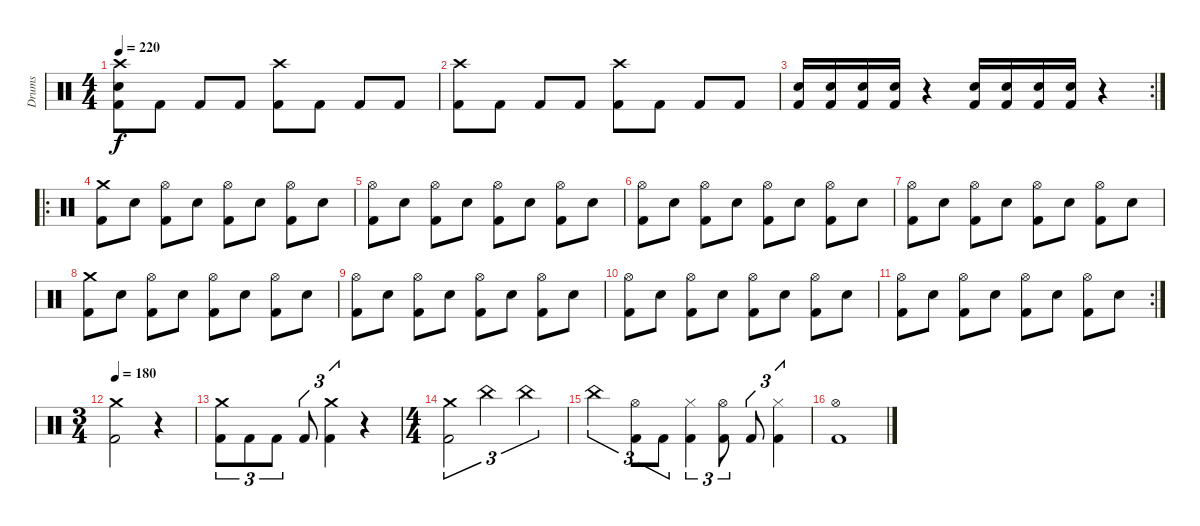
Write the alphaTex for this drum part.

\track ("Drums" "Drums") {instrument percussion}
\staff {score}
\articulation defaults
\ts (4 4)
\tempo 220
\clef neutral
\ks c
("Crash high (hit)" "Electric Snare (hit)" "Kick (hit) 2").8{dy f} "Kick (hit) 2".8 "Kick (hit) 2".8 "Kick (hit) 2".8 ("Crash high (hit)" "Kick (hit) 2").8 "Kick (hit) 2".8 "Kick (hit) 2".8 "Kick (hit) 2".8 |
("Crash high (hit)" "Kick (hit) 2").8 "Kick (hit) 2".8 "Kick (hit) 2".8 "Kick (hit) 2".8 ("Crash high (hit)" "Kick (hit) 2").8 "Kick (hit) 2".8 "Kick (hit) 2".8 "Kick (hit) 2".8 |
\rc 2
("Electric Snare (hit)" "Kick (hit) 2").16 ("Electric Snare (hit)" "Kick (hit) 2").16 ("Electric Snare (hit)" "Kick (hit) 2").16 ("Electric Snare (hit)" "Kick (hit) 2").16 r.4 ("Electric Snare (hit)" "Kick (hit) 2").16 ("Electric Snare (hit)" "Kick (hit) 2").16 ("Electric Snare (hit)" "Kick (hit) 2").16 ("Electric Snare (hit)" "Kick (hit) 2").16 r.4 |
\ro
("Crash medium (hit)" "Kick (hit) 2").8 "Electric Snare (hit)".8 ("Hi-Hat (open)" "Kick (hit) 2").8 "Electric Snare (hit)".8 ("Hi-Hat (open)" "Kick (hit) 2").8 "Electric Snare (hit)".8 ("Hi-Hat (open)" "Kick (hit) 2").8 "Electric Snare (hit)".8 |
("Hi-Hat (open)" "Kick (hit) 2").8 "Electric Snare (hit)".8 ("Hi-Hat (open)" "Kick (hit) 2").8 "Electric Snare (hit)".8 ("Hi-Hat (open)" "Kick (hit) 2").8 "Electric Snare (hit)".8 ("Hi-Hat (open)" "Kick (hit) 2").8 "Electric Snare (hit)".8 |
("Hi-Hat (open)" "Kick (hit) 2").8 "Electric Snare (hit)".8 ("Hi-Hat (open)" "Kick (hit) 2").8 "Electric Snare (hit)".8 ("Hi-Hat (open)" "Kick (hit) 2").8 "Electric Snare (hit)".8 ("Hi-Hat (open)" "Kick (hit) 2").8 "Electric Snare (hit)".8 |
("Hi-Hat (open)" "Kick (hit) 2").8 "Electric Snare (hit)".8 ("Hi-Hat (open)" "Kick (hit) 2").8 "Electric Snare (hit)".8 ("Hi-Hat (open)" "Kick (hit) 2").8 "Electric Snare (hit)".8 ("Hi-Hat (open)" "Kick (hit) 2").8 "Electric Snare (hit)".8 |
("Crash medium (hit)" "Kick (hit) 2").8 "Electric Snare (hit)".8 ("Hi-Hat (open)" "Kick (hit) 2").8 "Electric Snare (hit)".8 ("Hi-Hat (open)" "Kick (hit) 2").8 "Electric Snare (hit)".8 ("Hi-Hat (open)" "Kick (hit) 2").8 "Electric Snare (hit)".8 |
("Hi-Hat (open)" "Kick (hit) 2").8 "Electric Snare (hit)".8 ("Hi-Hat (open)" "Kick (hit) 2").8 "Electric Snare (hit)".8 ("Hi-Hat (open)" "Kick (hit) 2").8 "Electric Snare (hit)".8 ("Hi-Hat (open)" "Kick (hit) 2").8 "Electric Snare (hit)".8 |
("Hi-Hat (open)" "Kick (hit) 2").8 "Electric Snare (hit)".8 ("Hi-Hat (open)" "Kick (hit) 2").8 "Electric Snare (hit)".8 ("Hi-Hat (open)" "Kick (hit) 2").8 "Electric Snare (hit)".8 ("Hi-Hat (open)" "Kick (hit) 2").8 "Electric Snare (hit)".8 |
\rc 2
("Hi-Hat (open)" "Kick (hit) 2").8 "Electric Snare (hit)".8 ("Hi-Hat (open)" "Kick (hit) 2").8 "Electric Snare (hit)".8 ("Hi-Hat (open)" "Kick (hit) 2").8 "Electric Snare (hit)".8 ("Hi-Hat (open)" "Kick (hit) 2").8 "Electric Snare (hit)".8 |
\ts (3 4)
\tempo 180
("Crash medium (hit)" "Kick (hit) 2").2 r.4 |
("Crash medium (hit)" "Kick (hit) 2").8{tu (3 2)} "Kick (hit) 2".8{tu (3 2)} "Kick (hit) 2".8{tu (3 2)} "Kick (hit) 2".8{tu (3 2)} ("Crash medium (hit)" "Kick (hit) 2").4{tu (3 2)} r.4 |
\ts (4 4)
("Crash medium (hit)" "Kick (hit) 2").2{tu (3 2)} "China (hit)".2{tu (3 2)} "China (hit)".2{tu (3 2)} |
"China (hit)".2{tu (3 2)} ("Hi-Hat (open)" "Kick (hit) 2").8{tu (3 2)} "Kick (hit) 2".8{tu (3 2)} ("Hi-Hat (closed)" "Kick (hit) 2").4{tu (3 2)} ("Hi-Hat (open)" "Kick (hit) 2").8{tu (3 2)} "Kick (hit) 2".8{tu (3 2)} ("Hi-Hat (closed)" "Kick (hit) 2").4{tu (3 2)} |
("Hi-Hat (open)" "Kick (hit) 2").1
